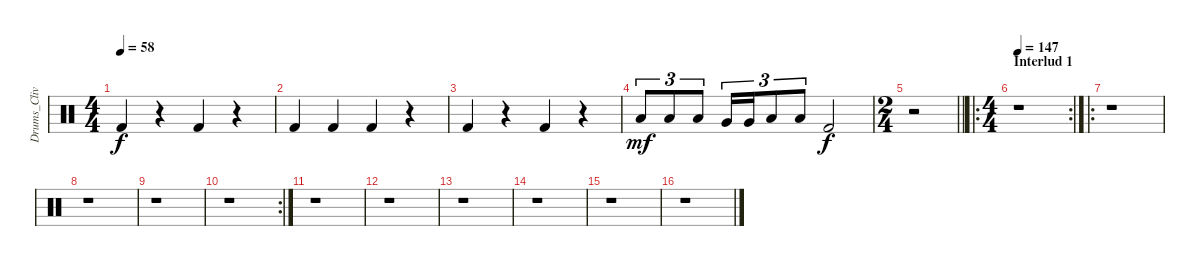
\track ("Drums_CliveBurr" "Drums_Cliv") {instrument percussion}
\staff {score}
\articulation defaults
\ts (4 4)
\tempo 58
\clef neutral
\ks c "Kick (hit) 2".4{dy f}
r.4 "Kick (hit) 2".4 r.4 |
"Kick (hit) 2".4 "Kick (hit) 2".4 "Kick (hit) 2".4 r.4 |
"Kick (hit) 2".4 r.4 "Kick (hit) 2".4 r.4 |
"Low Tom (hit)".8{tu (3 2) dy mf} "Low Tom (hit)".8{tu (3 2)} "Low Tom (hit)".8{tu (3 2)} "Very Low Tom (hit)".16{tu (3 2)} "Very Low Tom (hit)".16{tu (3 2)} "Low Floor Tom (hit)".8{tu (3 2)} "Low Floor Tom (hit)".8{tu (3 2)} "Kick (hit) 2".2{dy f} |
\ts (2 4)
\barLineRight lightlight
r.2 |
\ro
\rc 2
\ts (4 4)
\section ("" "Interlud 1")
\tempo 147
r.1 |
\ro
r.1 |
r.1 |
r.1 |
\rc 2
r.1 |
r.1 |
r.1 |
r.1 |
r.1 |
r.1 |
r.1
